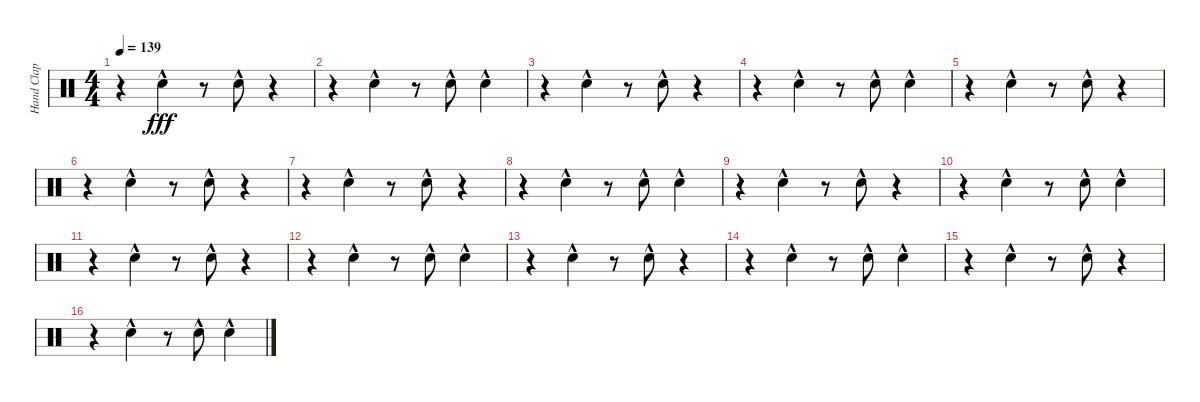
\track ("Hand Clap Effect" "Hand Clap ") {instrument percussion}
\staff {score}
\articulation defaults
\ts (4 4)
\tempo 139
\clef neutral
\ks c
r.4{dy fff} "Hand Clap (hit)"{hac}.4 r.8 "Hand Clap (hit)"{hac}.8 r.4 |
r.4 "Hand Clap (hit)"{hac}.4 r.8 "Hand Clap (hit)"{hac}.8 "Hand Clap (hit)"{hac}.4 |
r.4 "Hand Clap (hit)"{hac}.4 r.8 "Hand Clap (hit)"{hac}.8 r.4 |
r.4 "Hand Clap (hit)"{hac}.4 r.8 "Hand Clap (hit)"{hac}.8 "Hand Clap (hit)"{hac}.4 |
r.4 "Hand Clap (hit)"{hac}.4 r.8 "Hand Clap (hit)"{hac}.8 r.4 |
r.4 "Hand Clap (hit)"{hac}.4 r.8 "Hand Clap (hit)"{hac}.8 r.4 |
r.4 "Hand Clap (hit)"{hac}.4 r.8 "Hand Clap (hit)"{hac}.8 r.4 |
r.4 "Hand Clap (hit)"{hac}.4 r.8 "Hand Clap (hit)"{hac}.8 "Hand Clap (hit)"{hac}.4 |
r.4 "Hand Clap (hit)"{hac}.4 r.8 "Hand Clap (hit)"{hac}.8 r.4 |
r.4 "Hand Clap (hit)"{hac}.4 r.8 "Hand Clap (hit)"{hac}.8 "Hand Clap (hit)"{hac}.4 |
r.4 "Hand Clap (hit)"{hac}.4 r.8 "Hand Clap (hit)"{hac}.8 r.4 |
r.4 "Hand Clap (hit)"{hac}.4 r.8 "Hand Clap (hit)"{hac}.8 "Hand Clap (hit)"{hac}.4 |
r.4 "Hand Clap (hit)"{hac}.4 r.8 "Hand Clap (hit)"{hac}.8 r.4 |
r.4 "Hand Clap (hit)"{hac}.4 r.8 "Hand Clap (hit)"{hac}.8 "Hand Clap (hit)"{hac}.4 |
r.4 "Hand Clap (hit)"{hac}.4 r.8 "Hand Clap (hit)"{hac}.8 r.4 |
r.4 "Hand Clap (hit)"{hac}.4 r.8 "Hand Clap (hit)"{hac}.8 "Hand Clap (hit)"{hac}.4
